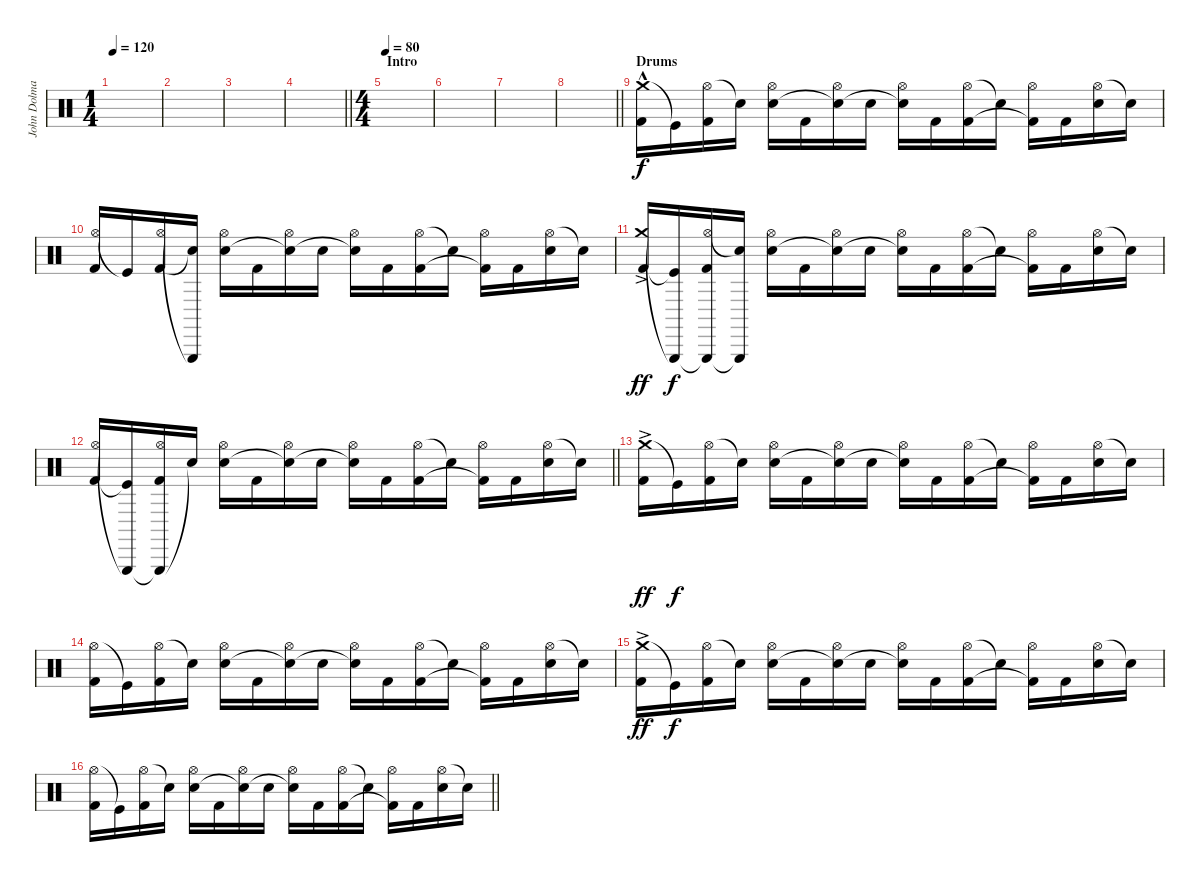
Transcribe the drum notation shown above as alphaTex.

\track ("John Dolmayan (drums)" "John Dolma") {instrument percussion}
\staff
\articulation defaults
\ts (1 4)
\tempo 120
\clef neutral
\ks c
|
|
|
\barLineRight lightlight
|
\ts (4 4)
\section ("" "Intro")
\tempo 80
|
|
|
\barLineRight lightlight
|
\section ("" "Drums")
("Crash medium (hit)"{hac} "Kick (hit) 2"{hac}).16{volume 16} "Kick (hit)"{t}.16{dy f} ("Hi-Hat (open)" "Kick (hit) 2").16 "Snare (hit)"{t}.16 ("Hi-Hat (open)" "Electric Snare (hit)").16 "Kick (hit) 2".16 ("Hi-Hat (open)" "Snare (hit)"{t}).16 "Electric Snare (hit)".16 ("Hi-Hat (open)" "Snare (hit)"{t}).16 "Kick (hit) 2".16 ("Hi-Hat (open)" "Kick (hit) 2").16 "Snare (hit)"{t}.16 ("Hi-Hat (open)" "Kick (hit) 2"{t}).16 "Kick (hit) 2".16 ("Hi-Hat (open)" "Electric Snare (hit)").16 "Snare (hit)"{t}.16 |
("Hi-Hat (open)" "Kick (hit) 2").16 "Kick (hit)"{t}.16 ("Hi-Hat (open)" "Kick (hit) 2").16 ("Triangle (hit)"{t} "Snare (hit)"{t}).16 ("Hi-Hat (open)" "Electric Snare (hit)").16 "Kick (hit) 2".16 ("Hi-Hat (open)" "Snare (hit)"{t}).16 "Electric Snare (hit)".16 ("Hi-Hat (open)" "Snare (hit)"{t}).16 "Kick (hit) 2".16 ("Hi-Hat (open)" "Kick (hit) 2").16 "Snare (hit)"{t}.16 ("Hi-Hat (open)" "Kick (hit) 2"{t}).16 "Kick (hit) 2".16 ("Hi-Hat (open)" "Electric Snare (hit)").16 "Snare (hit)"{t}.16 |
("Crash medium (hit)"{ac} "Kick (hit) 2").16{dy ff} ("Triangle (hit)"{t} "Kick (hit)"{t}).16{dy f} ("Triangle (hit)"{t} "Hi-Hat (open)" "Kick (hit) 2").16 ("Triangle (hit)"{t} "Snare (hit)"{t}).16 ("Hi-Hat (open)" "Electric Snare (hit)").16 "Kick (hit) 2".16 ("Hi-Hat (open)" "Snare (hit)"{t}).16 "Electric Snare (hit)".16 ("Hi-Hat (open)" "Snare (hit)"{t}).16 "Kick (hit) 2".16 ("Hi-Hat (open)" "Kick (hit) 2").16 "Snare (hit)"{t}.16 ("Hi-Hat (open)" "Kick (hit) 2"{t}).16 "Kick (hit) 2".16 ("Hi-Hat (open)" "Electric Snare (hit)").16 "Snare (hit)"{t}.16 |
\barLineRight lightlight
("Hi-Hat (open)" "Kick (hit) 2").16 ("Triangle (hit)"{t} "Kick (hit)"{t}).16 ("Triangle (hit)"{t} "Hi-Hat (open)" "Kick (hit) 2").16 "Snare (hit)"{t}.16 ("Hi-Hat (open)" "Electric Snare (hit)").16 "Kick (hit) 2".16 ("Hi-Hat (open)" "Snare (hit)"{t}).16 "Electric Snare (hit)".16 ("Hi-Hat (open)" "Snare (hit)"{t}).16 "Kick (hit) 2".16 ("Hi-Hat (open)" "Kick (hit) 2").16 "Snare (hit)"{t}.16 ("Hi-Hat (open)" "Kick (hit) 2"{t}).16 "Kick (hit) 2".16 ("Hi-Hat (open)" "Electric Snare (hit)").16 "Snare (hit)"{t}.16 |
("Crash medium (hit)"{ac} "Kick (hit) 2").16{dy ff} "Kick (hit)"{t}.16{dy f} ("Hi-Hat (open)" "Kick (hit) 2").16 "Snare (hit)"{t}.16 ("Hi-Hat (open)" "Electric Snare (hit)").16 "Kick (hit) 2".16 ("Hi-Hat (open)" "Snare (hit)"{t}).16 "Electric Snare (hit)".16 ("Hi-Hat (open)" "Snare (hit)"{t}).16 "Kick (hit) 2".16 ("Hi-Hat (open)" "Kick (hit) 2").16 "Snare (hit)"{t}.16 ("Hi-Hat (open)" "Kick (hit) 2"{t}).16 "Kick (hit) 2".16 ("Hi-Hat (open)" "Electric Snare (hit)").16 "Snare (hit)"{t}.16 |
("Hi-Hat (open)" "Kick (hit) 2").16 "Kick (hit)"{t}.16 ("Hi-Hat (open)" "Kick (hit) 2").16 "Snare (hit)"{t}.16 ("Hi-Hat (open)" "Electric Snare (hit)").16 "Kick (hit) 2".16 ("Hi-Hat (open)" "Snare (hit)"{t}).16 "Electric Snare (hit)".16 ("Hi-Hat (open)" "Snare (hit)"{t}).16 "Kick (hit) 2".16 ("Hi-Hat (open)" "Kick (hit) 2").16 "Snare (hit)"{t}.16 ("Hi-Hat (open)" "Kick (hit) 2"{t}).16 "Kick (hit) 2".16 ("Hi-Hat (open)" "Electric Snare (hit)").16 "Snare (hit)"{t}.16 |
("Crash medium (hit)"{ac} "Kick (hit) 2").16{dy ff} "Kick (hit)"{t}.16{dy f} ("Hi-Hat (open)" "Kick (hit) 2").16 "Snare (hit)"{t}.16 ("Hi-Hat (open)" "Electric Snare (hit)").16 "Kick (hit) 2".16 ("Hi-Hat (open)" "Snare (hit)"{t}).16 "Electric Snare (hit)".16 ("Hi-Hat (open)" "Snare (hit)"{t}).16 "Kick (hit) 2".16 ("Hi-Hat (open)" "Kick (hit) 2").16 "Snare (hit)"{t}.16 ("Hi-Hat (open)" "Kick (hit) 2"{t}).16 "Kick (hit) 2".16 ("Hi-Hat (open)" "Electric Snare (hit)").16 "Snare (hit)"{t}.16 |
\barLineRight lightlight
("Hi-Hat (open)" "Kick (hit) 2").16 "Kick (hit)"{t}.16 ("Hi-Hat (open)" "Kick (hit) 2").16 "Snare (hit)"{t}.16 ("Hi-Hat (open)" "Electric Snare (hit)").16 "Kick (hit) 2".16 ("Hi-Hat (open)" "Snare (hit)"{t}).16 "Electric Snare (hit)".16 ("Hi-Hat (open)" "Snare (hit)"{t}).16 "Kick (hit) 2".16 ("Hi-Hat (open)" "Kick (hit) 2").16 "Snare (hit)"{t}.16 ("Hi-Hat (open)" "Kick (hit) 2"{t}).16 "Kick (hit) 2".16 ("Hi-Hat (open)" "Electric Snare (hit)").16 "Snare (hit)"{t}.16
